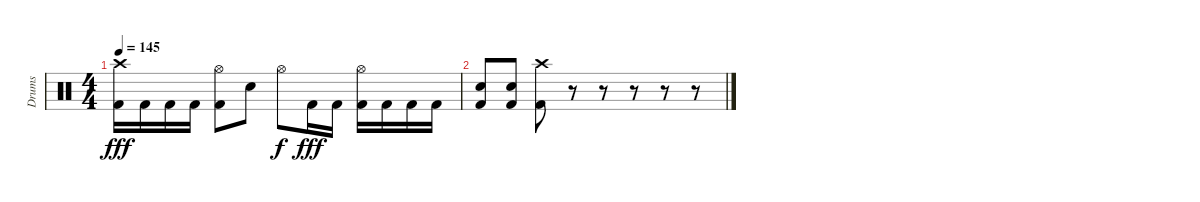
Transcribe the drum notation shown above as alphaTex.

\track ("Drums" "Drums") {instrument percussion}
\staff {score}
\articulation defaults
\ts (4 4)
\tempo 145
\clef neutral
\ks c
("Crash high (hit)" "Kick (hit) 2").16{dy fff} "Kick (hit) 2".16 "Kick (hit) 2".16 "Kick (hit) 2".16 ("Hi-Hat (open)" "Kick (hit) 2").8 "Electric Snare (hit)".8 "Hi-Hat (open)".8{dy f} "Kick (hit) 2".16{dy fff} "Kick (hit) 2".16 ("Hi-Hat (open)" "Kick (hit) 2").16 "Kick (hit) 2".16 "Kick (hit) 2".16 "Kick (hit) 2".16 |
("Electric Snare (hit)" "Kick (hit) 2").8 ("Electric Snare (hit)" "Kick (hit) 2").8 ("Crash high (hit)" "Kick (hit) 2").8 r.8 r.8 r.8 r.8 r.8
